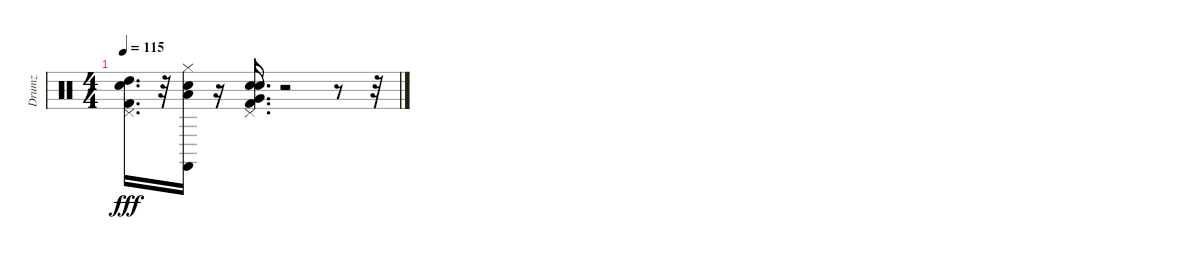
\track ("Drumz" "Drumz") {instrument percussion}
\staff {score}
\articulation defaults
\ts (4 4)
\tempo 115
\clef neutral
\ks c
("Electric Snare (hit)" "Kick (hit) 2" "Pedal Hi-Hat (hit)" "High Tom (hit)").16{d dy fff} r.32 ("Electric Snare (hit)" "Hi-Hat (closed)" "Castanets (hit)" "Low Tom (hit)").16 r.16 ("Kick (hit) 2" "Pedal Hi-Hat (hit)" "Hand Clap (hit)" "Electric Snare (hit)" "Very Low Tom (hit)").16{d} r.2 r.8 r.32
